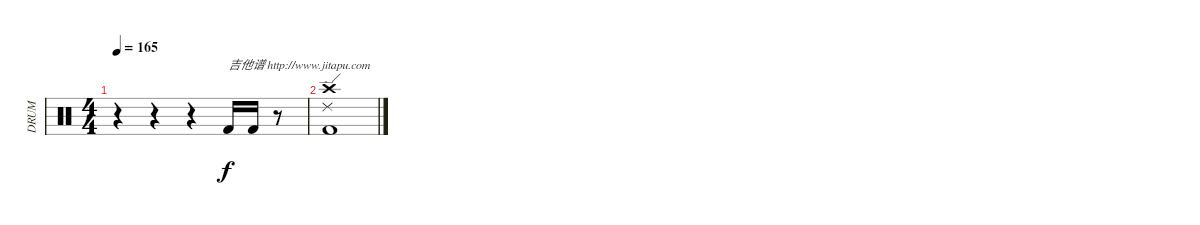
\track ("DRUM" "DRUM") {instrument percussion}
\staff {score}
\articulation defaults
\ts (4 4)
\tempo 165
\clef neutral
\ks c
r.4{dy f} r.4 r.4 "Kick (hit) 2".16{txt "吉他谱 http://www.jitapu.com"} "Kick (hit) 2".16 r.8 |
("Ride (edge) 2" "Crash high (hit)" "Kick (hit) 2").1
